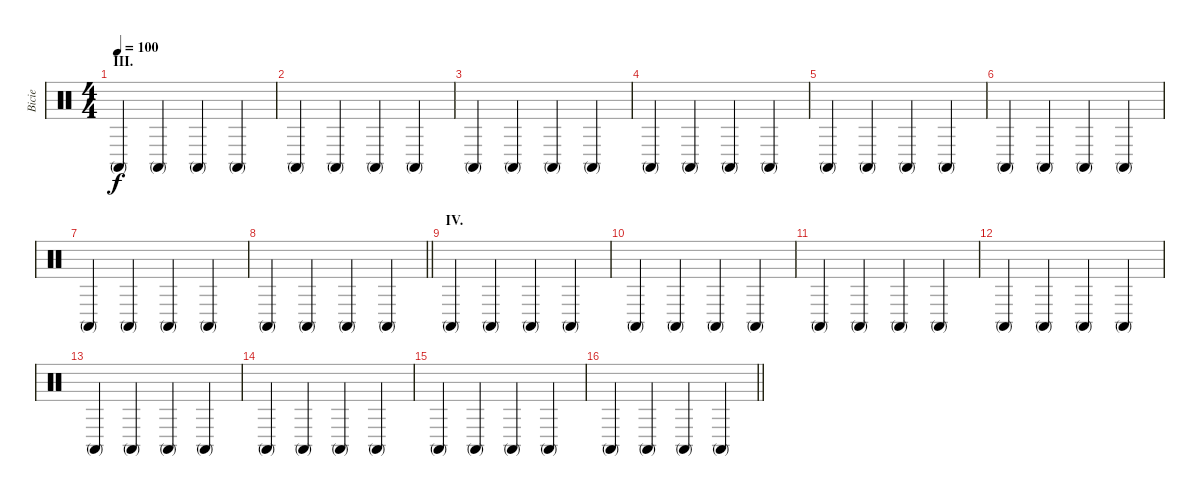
\track ("Bicie" "Bicie") {instrument percussion}
\staff {score}
\articulation defaults
\ts (4 4)
\section ("" "III.")
\tempo 100
\clef neutral
\ks c "Conga high (mute)".4{dy f} "Conga high (mute)".4 "Conga high (mute)".4 "Conga high (mute)".4
|
"Conga high (mute)".4 "Conga high (mute)".4 "Conga high (mute)".4 "Conga high (mute)".4 |
"Conga high (mute)".4 "Conga high (mute)".4 "Conga high (mute)".4 "Conga high (mute)".4 |
"Conga high (mute)".4 "Conga high (mute)".4 "Conga high (mute)".4 "Conga high (mute)".4 |
"Conga high (mute)".4 "Conga high (mute)".4 "Conga high (mute)".4 "Conga high (mute)".4 |
"Conga high (mute)".4 "Conga high (mute)".4 "Conga high (mute)".4 "Conga high (mute)".4 |
"Conga high (mute)".4 "Conga high (mute)".4 "Conga high (mute)".4 "Conga high (mute)".4 |
\barLineRight lightlight "Conga high (mute)".4 "Conga high (mute)".4 "Conga high (mute)".4 "Conga high (mute)".4
|
\section ("" "IV.")
"Conga high (mute)".4 "Conga high (mute)".4 "Conga high (mute)".4 "Conga high (mute)".4 |
"Conga high (mute)".4 "Conga high (mute)".4 "Conga high (mute)".4 "Conga high (mute)".4 |
"Conga high (mute)".4 "Conga high (mute)".4 "Conga high (mute)".4 "Conga high (mute)".4 |
"Conga high (mute)".4 "Conga high (mute)".4 "Conga high (mute)".4 "Conga high (mute)".4 |
"Conga high (mute)".4 "Conga high (mute)".4 "Conga high (mute)".4 "Conga high (mute)".4 |
"Conga high (mute)".4 "Conga high (mute)".4 "Conga high (mute)".4 "Conga high (mute)".4 |
"Conga high (mute)".4 "Conga high (mute)".4 "Conga high (mute)".4 "Conga high (mute)".4 |
\barLineRight lightlight "Conga high (mute)".4 "Conga high (mute)".4 "Conga high (mute)".4 "Conga high (mute)".4
